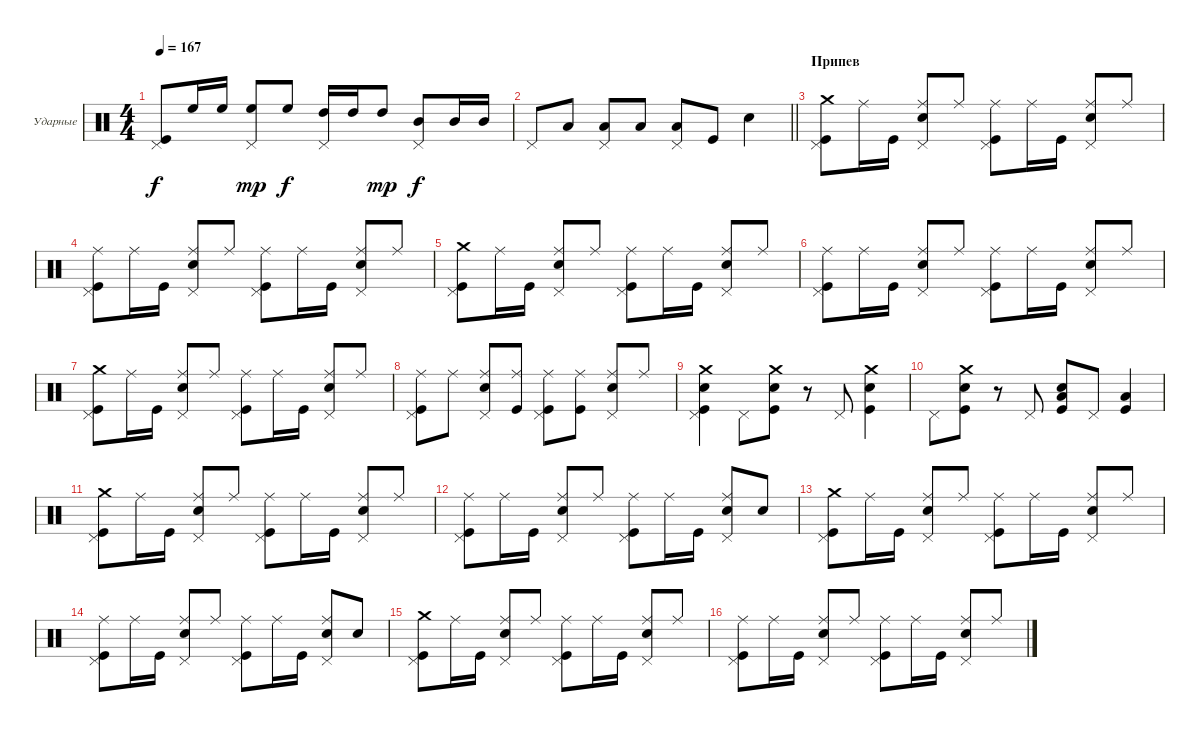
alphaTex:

\bracketExtendMode groupsimilarinstruments
\firstSystemTrackNameOrientation horizontal
\otherSystemsTrackNameOrientation horizontal
\track ("Максим Удалов" "Ударные") {instrument percussion}
\staff {score}
\articulation defaults
\ts (4 4)
\tempo 167
\clef neutral
\ks aminor
("Kick (hit)" "Pedal Hi-Hat (hit)").8{dy f} "High Floor Tom (hit)".16 "High Floor Tom (hit)".16 ("High Floor Tom (hit)" "Pedal Hi-Hat (hit)").8{dy mp} "High Floor Tom (hit)".8{dy f} ("Pedal Hi-Hat (hit)" "High Tom (hit)").16 "High Tom (hit)".16 "High Tom (hit)".8{dy mp} ("Pedal Hi-Hat (hit)" "Mid Tom (hit)").8{dy f} "Mid Tom (hit)".16 "Mid Tom (hit)".16 |
\barLineRight lightlight "Pedal Hi-Hat (hit)".8 "Low Tom (hit)".8
("Low Tom (hit)" "Pedal Hi-Hat (hit)").8 "Low Tom (hit)".8 ("Low Tom (hit)" "Pedal Hi-Hat (hit)").8 "Kick (hit)".8 "Snare (hit) 2".4 |
\section ("" "Припев")
("Kick (hit)" "Pedal Hi-Hat (hit)" "Crash medium (hit)").8 "Ride (middle)".16 "Kick (hit)".16 ("Ride (middle)" "Snare (hit) 2" "Pedal Hi-Hat (hit)").8 "Ride (middle)".8 ("Ride (middle)" "Kick (hit)" "Pedal Hi-Hat (hit)").8 "Ride (middle)".16 "Kick (hit)".16 ("Ride (middle)" "Snare (hit) 2" "Pedal Hi-Hat (hit)").8 "Ride (middle)".8 |
("Kick (hit)" "Ride (middle)" "Pedal Hi-Hat (hit)").8 "Ride (middle)".16 "Kick (hit)".16 ("Snare (hit) 2" "Ride (middle)" "Pedal Hi-Hat (hit)").8 "Ride (middle)".8 ("Ride (middle)" "Kick (hit)" "Pedal Hi-Hat (hit)").8 "Ride (middle)".16 "Kick (hit)".16 ("Snare (hit) 2" "Ride (middle)" "Pedal Hi-Hat (hit)").8 "Ride (middle)".8 |
("Kick (hit)" "Pedal Hi-Hat (hit)" "Crash medium (hit)").8 "Ride (middle)".16 "Kick (hit)".16 ("Ride (middle)" "Snare (hit) 2" "Pedal Hi-Hat (hit)").8 "Ride (middle)".8 ("Ride (middle)" "Kick (hit)" "Pedal Hi-Hat (hit)").8 "Ride (middle)".16 "Kick (hit)".16 ("Ride (middle)" "Snare (hit) 2" "Pedal Hi-Hat (hit)").8 "Ride (middle)".8 |
("Kick (hit)" "Ride (middle)" "Pedal Hi-Hat (hit)").8 "Ride (middle)".16 "Kick (hit)".16 ("Snare (hit) 2" "Ride (middle)" "Pedal Hi-Hat (hit)").8 "Ride (middle)".8 ("Ride (middle)" "Kick (hit)" "Pedal Hi-Hat (hit)").8 "Ride (middle)".16 "Kick (hit)".16 ("Snare (hit) 2" "Ride (middle)" "Pedal Hi-Hat (hit)").8 "Ride (middle)".8 |
("Kick (hit)" "Pedal Hi-Hat (hit)" "Crash medium (hit)").8 "Ride (middle)".16 "Kick (hit)".16 ("Ride (middle)" "Snare (hit) 2" "Pedal Hi-Hat (hit)").8 "Ride (middle)".8 ("Ride (middle)" "Kick (hit)" "Pedal Hi-Hat (hit)").8 "Ride (middle)".16 "Kick (hit)".16 ("Ride (middle)" "Snare (hit) 2" "Pedal Hi-Hat (hit)").8 "Ride (middle)".8 |
("Kick (hit)" "Ride (middle)" "Pedal Hi-Hat (hit)").8 "Ride (middle)".8 ("Snare (hit) 2" "Ride (middle)" "Pedal Hi-Hat (hit)").8 ("Ride (middle)" "Kick (hit)").8 ("Ride (middle)" "Kick (hit)" "Pedal Hi-Hat (hit)").8 ("Ride (middle)" "Kick (hit)").8 ("Snare (hit) 2" "Ride (middle)" "Pedal Hi-Hat (hit)").8 "Ride (middle)".8 |
("Snare (hit) 2" "Crash medium (hit)" "Kick (hit)" "Pedal Hi-Hat (hit)").4 "Pedal Hi-Hat (hit)".8 ("Crash medium (hit)" "Kick (hit)" "Snare (hit) 2").8 r.8 "Pedal Hi-Hat (hit)".8 ("Crash medium (hit)" "Snare (hit) 2" "Kick (hit)").4 |
"Pedal Hi-Hat (hit)".8 ("Crash medium (hit)" "Kick (hit)" "Snare (hit) 2").8 r.8 "Pedal Hi-Hat (hit)".8 ("Low Tom (hit)" "Kick (hit)" "Snare (hit) 2").8 "Pedal Hi-Hat (hit)".8 ("Kick (hit)" "Low Tom (hit)").4 |
("Kick (hit)" "Pedal Hi-Hat (hit)" "Crash medium (hit)").8 "Ride (middle)".16 "Kick (hit)".16 ("Ride (middle)" "Snare (hit) 2" "Pedal Hi-Hat (hit)").8 "Ride (middle)".8 ("Ride (middle)" "Kick (hit)" "Pedal Hi-Hat (hit)").8 "Ride (middle)".16 "Kick (hit)".16 ("Ride (middle)" "Snare (hit) 2" "Pedal Hi-Hat (hit)").8 "Ride (middle)".8 |
("Kick (hit)" "Ride (middle)" "Pedal Hi-Hat (hit)").8 "Ride (middle)".16 "Kick (hit)".16 ("Snare (hit) 2" "Ride (middle)" "Pedal Hi-Hat (hit)").8 "Ride (middle)".8 ("Ride (middle)" "Kick (hit)" "Pedal Hi-Hat (hit)").8 "Ride (middle)".16 "Kick (hit)".16 ("Ride (middle)" "Snare (hit) 2" "Pedal Hi-Hat (hit)").8 "Snare (hit) 2".8 |
("Kick (hit)" "Pedal Hi-Hat (hit)" "Crash medium (hit)").8 "Ride (middle)".16 "Kick (hit)".16 ("Ride (middle)" "Snare (hit) 2" "Pedal Hi-Hat (hit)").8 "Ride (middle)".8 ("Ride (middle)" "Kick (hit)" "Pedal Hi-Hat (hit)").8 "Ride (middle)".16 "Kick (hit)".16 ("Ride (middle)" "Snare (hit) 2" "Pedal Hi-Hat (hit)").8 "Ride (middle)".8 |
("Kick (hit)" "Ride (middle)" "Pedal Hi-Hat (hit)").8 "Ride (middle)".16 "Kick (hit)".16 ("Snare (hit) 2" "Ride (middle)" "Pedal Hi-Hat (hit)").8 "Ride (middle)".8 ("Ride (middle)" "Kick (hit)" "Pedal Hi-Hat (hit)").8 "Ride (middle)".16 "Kick (hit)".16 ("Ride (middle)" "Snare (hit) 2" "Pedal Hi-Hat (hit)").8 "Snare (hit) 2".8 |
("Kick (hit)" "Pedal Hi-Hat (hit)" "Crash medium (hit)").8 "Ride (middle)".16 "Kick (hit)".16 ("Ride (middle)" "Snare (hit) 2" "Pedal Hi-Hat (hit)").8 "Ride (middle)".8 ("Ride (middle)" "Kick (hit)" "Pedal Hi-Hat (hit)").8 "Ride (middle)".16 "Kick (hit)".16 ("Ride (middle)" "Snare (hit) 2" "Pedal Hi-Hat (hit)").8 "Ride (middle)".8 |
("Kick (hit)" "Ride (middle)" "Pedal Hi-Hat (hit)").8 "Ride (middle)".16 "Kick (hit)".16 ("Snare (hit) 2" "Ride (middle)" "Pedal Hi-Hat (hit)").8 "Ride (middle)".8 ("Ride (middle)" "Kick (hit)" "Pedal Hi-Hat (hit)").8 "Ride (middle)".16 "Kick (hit)".16 ("Snare (hit) 2" "Ride (middle)" "Pedal Hi-Hat (hit)").8 "Ride (middle)".8
